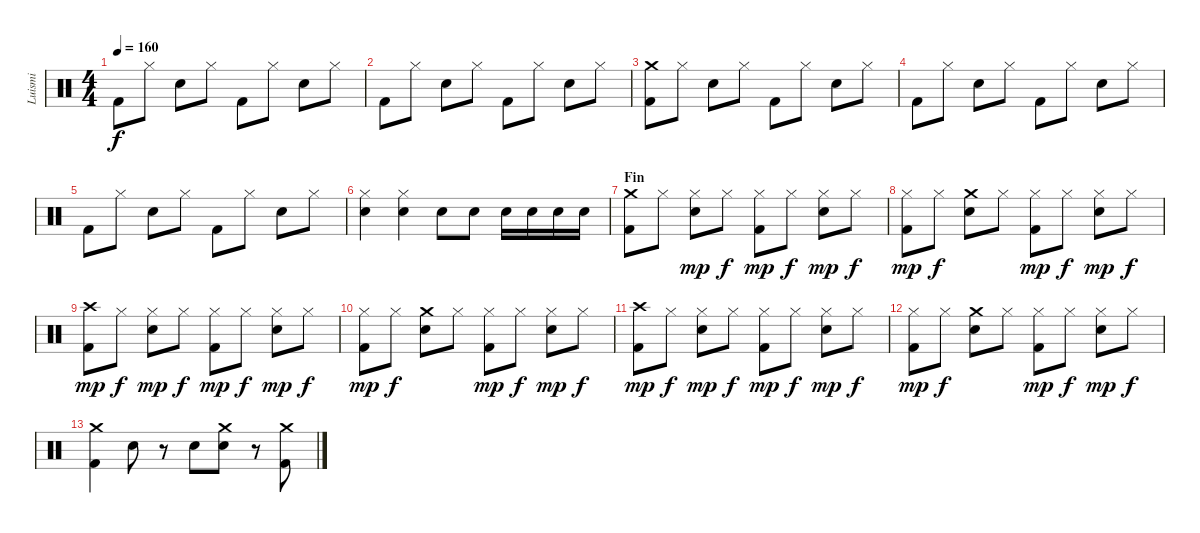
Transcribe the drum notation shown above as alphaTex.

\track ("Luismi" "Luismi") {instrument percussion}
\staff {score}
\articulation defaults
\ts (4 4)
\tempo 160
\clef neutral
\ks c "Kick (hit) 2".8{dy f} "Hi-Hat (closed)".8 "Snare (hit) 2".8 "Hi-Hat (closed)".8 "Kick (hit) 2".8 "Hi-Hat (closed)".8 "Snare (hit) 2".8 "Hi-Hat (closed)".8
|
"Kick (hit) 2".8 "Hi-Hat (closed)".8 "Snare (hit) 2".8 "Hi-Hat (closed)".8 "Kick (hit) 2".8 "Hi-Hat (closed)".8 "Snare (hit) 2".8 "Hi-Hat (closed)".8 |
("Crash medium (hit)" "Kick (hit) 2").8 "Hi-Hat (closed)".8 "Snare (hit) 2".8 "Hi-Hat (closed)".8 "Kick (hit) 2".8 "Hi-Hat (closed)".8 "Snare (hit) 2".8 "Hi-Hat (closed)".8 |
"Kick (hit) 2".8 "Hi-Hat (closed)".8 "Snare (hit) 2".8 "Hi-Hat (closed)".8 "Kick (hit) 2".8 "Hi-Hat (closed)".8 "Snare (hit) 2".8 "Hi-Hat (closed)".8 |
"Kick (hit) 2".8 "Hi-Hat (closed)".8 "Snare (hit) 2".8 "Hi-Hat (closed)".8 "Kick (hit) 2".8 "Hi-Hat (closed)".8 "Snare (hit) 2".8 "Hi-Hat (closed)".8 |
("Hi-Hat (closed)" "Snare (hit) 2").4 ("Hi-Hat (closed)" "Snare (hit) 2").4 "Snare (hit) 2".8 "Snare (hit) 2".8 "Snare (hit) 2".16 "Snare (hit) 2".16 "Snare (hit) 2".16 "Snare (hit) 2".16 |
\section ("" "Fin")
("Crash medium (hit)" "Kick (hit) 2").8 "Hi-Hat (closed)".8 ("Hi-Hat (closed)" "Snare (hit) 2").8{dy mp} "Hi-Hat (closed)".8{dy f} ("Hi-Hat (closed)" "Kick (hit) 2").8{dy mp} "Hi-Hat (closed)".8{dy f} ("Hi-Hat (closed)" "Snare (hit) 2").8{dy mp} "Hi-Hat (closed)".8{dy f} |
("Hi-Hat (closed)" "Kick (hit) 2").8{dy mp} "Hi-Hat (closed)".8{dy f} ("Crash medium (hit)" "Snare (hit) 2").8 "Hi-Hat (closed)".8 ("Hi-Hat (closed)" "Kick (hit) 2").8{dy mp} "Hi-Hat (closed)".8{dy f} ("Hi-Hat (closed)" "Snare (hit) 2").8{dy mp} "Hi-Hat (closed)".8{dy f} |
("Crash high (hit)" "Kick (hit) 2").8{dy mp} "Hi-Hat (closed)".8{dy f} ("Hi-Hat (closed)" "Snare (hit) 2").8{dy mp} "Hi-Hat (closed)".8{dy f} ("Hi-Hat (closed)" "Kick (hit) 2").8{dy mp} "Hi-Hat (closed)".8{dy f} ("Hi-Hat (closed)" "Snare (hit) 2").8{dy mp} "Hi-Hat (closed)".8{dy f} |
("Hi-Hat (closed)" "Kick (hit) 2").8{dy mp} "Hi-Hat (closed)".8{dy f} ("Crash medium (hit)" "Snare (hit) 2").8 "Hi-Hat (closed)".8 ("Hi-Hat (closed)" "Kick (hit) 2").8{dy mp} "Hi-Hat (closed)".8{dy f} ("Hi-Hat (closed)" "Snare (hit) 2").8{dy mp} "Hi-Hat (closed)".8{dy f} |
("Crash high (hit)" "Kick (hit) 2").8{dy mp} "Hi-Hat (closed)".8{dy f} ("Hi-Hat (closed)" "Snare (hit) 2").8{dy mp} "Hi-Hat (closed)".8{dy f} ("Hi-Hat (closed)" "Kick (hit) 2").8{dy mp} "Hi-Hat (closed)".8{dy f} ("Hi-Hat (closed)" "Snare (hit) 2").8{dy mp} "Hi-Hat (closed)".8{dy f} |
("Hi-Hat (closed)" "Kick (hit) 2").8{dy mp} "Hi-Hat (closed)".8{dy f} ("Crash medium (hit)" "Snare (hit) 2").8 "Hi-Hat (closed)".8 ("Hi-Hat (closed)" "Kick (hit) 2").8{dy mp} "Hi-Hat (closed)".8{dy f} ("Hi-Hat (closed)" "Snare (hit) 2").8{dy mp} "Hi-Hat (closed)".8{dy f} |
("Crash medium (hit)" "Kick (hit) 2").4 "Snare (hit) 2".8 r.8 "Snare (hit) 2".8 ("Crash medium (hit)" "Snare (hit) 2").8 r.8 ("Crash medium (hit)" "Kick (hit) 2").8
